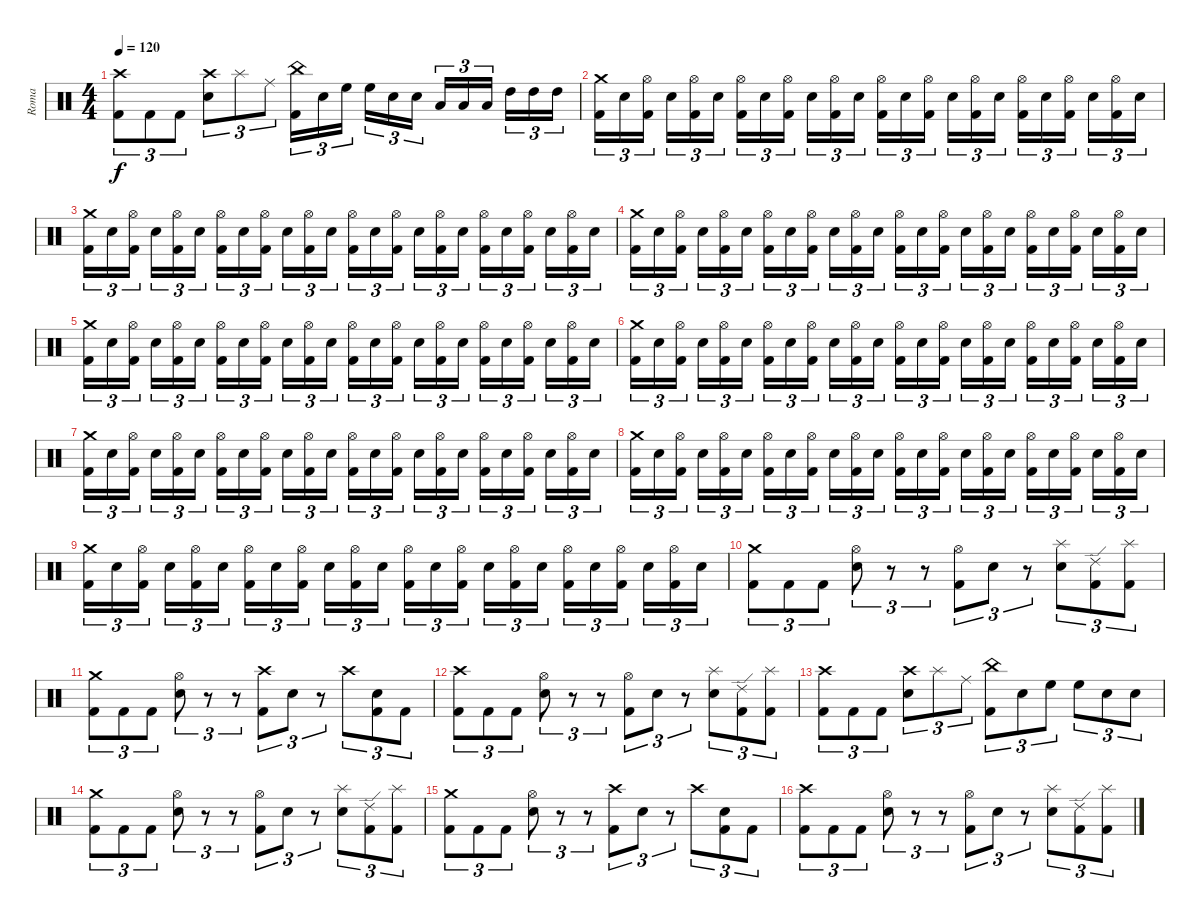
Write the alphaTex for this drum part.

\track ("Roma" "Roma") {instrument percussion}
\staff {score}
\articulation defaults
\ts (4 4)
\tempo 120
\clef neutral
\ks c
("Crash high (hit)" "Kick (hit) 2").8{tu (3 2) dy f} "Kick (hit) 2".8{tu (3 2)} "Kick (hit) 2".8{tu (3 2)} ("Crash high (hit)" "Electric Snare (hit)").8{tu (3 2)} "Splash (hit)".8{tu (3 2)} "Ride (middle)".8{tu (3 2)} ("China (hit)" "Kick (hit) 2").16{tu (3 2)} "Electric Snare (hit)".16{tu (3 2)} "High Floor Tom (hit)".16{tu (3 2) beam splitsecondary} "High Floor Tom (hit)".16{tu (3 2)} "Electric Snare (hit)".16{tu (3 2)} "Electric Snare (hit)".16{tu (3 2)} "Low Tom (hit)".16{tu (3 2)} "Low Tom (hit)".16{tu (3 2)} "Low Tom (hit)".16{tu (3 2) beam splitsecondary} "High Tom (hit)".16{tu (3 2)} "High Tom (hit)".16{tu (3 2)} "High Tom (hit)".16{tu (3 2)} |
("Crash medium (hit)" "Kick (hit) 2").16{tu (3 2)} "Electric Snare (hit)".16{tu (3 2)} ("Hi-Hat (open)" "Kick (hit) 2").16{tu (3 2) beam splitsecondary} "Electric Snare (hit)".16{tu (3 2)} ("Hi-Hat (open)" "Kick (hit) 2").16{tu (3 2)} "Electric Snare (hit)".16{tu (3 2)} ("Hi-Hat (open)" "Kick (hit) 2").16{tu (3 2)} "Electric Snare (hit)".16{tu (3 2)} ("Hi-Hat (open)" "Kick (hit) 2").16{tu (3 2) beam splitsecondary} "Electric Snare (hit)".16{tu (3 2)} ("Hi-Hat (open)" "Kick (hit) 2").16{tu (3 2)} "Electric Snare (hit)".16{tu (3 2)} ("Hi-Hat (open)" "Kick (hit) 2").16{tu (3 2)} "Electric Snare (hit)".16{tu (3 2)} ("Hi-Hat (open)" "Kick (hit) 2").16{tu (3 2) beam splitsecondary} "Electric Snare (hit)".16{tu (3 2)} ("Hi-Hat (open)" "Kick (hit) 2").16{tu (3 2)} "Electric Snare (hit)".16{tu (3 2)} ("Hi-Hat (open)" "Kick (hit) 2").16{tu (3 2)} "Electric Snare (hit)".16{tu (3 2)} ("Hi-Hat (open)" "Kick (hit) 2").16{tu (3 2) beam splitsecondary} "Electric Snare (hit)".16{tu (3 2)} ("Hi-Hat (open)" "Kick (hit) 2").16{tu (3 2)} "Electric Snare (hit)".16{tu (3 2)} |
("Crash medium (hit)" "Kick (hit) 2").16{tu (3 2)} "Electric Snare (hit)".16{tu (3 2)} ("Hi-Hat (open)" "Kick (hit) 2").16{tu (3 2) beam splitsecondary} "Electric Snare (hit)".16{tu (3 2)} ("Hi-Hat (open)" "Kick (hit) 2").16{tu (3 2)} "Electric Snare (hit)".16{tu (3 2)} ("Hi-Hat (open)" "Kick (hit) 2").16{tu (3 2)} "Electric Snare (hit)".16{tu (3 2)} ("Hi-Hat (open)" "Kick (hit) 2").16{tu (3 2) beam splitsecondary} "Electric Snare (hit)".16{tu (3 2)} ("Hi-Hat (open)" "Kick (hit) 2").16{tu (3 2)} "Electric Snare (hit)".16{tu (3 2)} ("Hi-Hat (open)" "Kick (hit) 2").16{tu (3 2)} "Electric Snare (hit)".16{tu (3 2)} ("Hi-Hat (open)" "Kick (hit) 2").16{tu (3 2) beam splitsecondary} "Electric Snare (hit)".16{tu (3 2)} ("Hi-Hat (open)" "Kick (hit) 2").16{tu (3 2)} "Electric Snare (hit)".16{tu (3 2)} ("Hi-Hat (open)" "Kick (hit) 2").16{tu (3 2)} "Electric Snare (hit)".16{tu (3 2)} ("Hi-Hat (open)" "Kick (hit) 2").16{tu (3 2) beam splitsecondary} "Electric Snare (hit)".16{tu (3 2)} ("Hi-Hat (open)" "Kick (hit) 2").16{tu (3 2)} "Electric Snare (hit)".16{tu (3 2)} |
("Crash medium (hit)" "Kick (hit) 2").16{tu (3 2)} "Electric Snare (hit)".16{tu (3 2)} ("Hi-Hat (open)" "Kick (hit) 2").16{tu (3 2) beam splitsecondary} "Electric Snare (hit)".16{tu (3 2)} ("Hi-Hat (open)" "Kick (hit) 2").16{tu (3 2)} "Electric Snare (hit)".16{tu (3 2)} ("Hi-Hat (open)" "Kick (hit) 2").16{tu (3 2)} "Electric Snare (hit)".16{tu (3 2)} ("Hi-Hat (open)" "Kick (hit) 2").16{tu (3 2) beam splitsecondary} "Electric Snare (hit)".16{tu (3 2)} ("Hi-Hat (open)" "Kick (hit) 2").16{tu (3 2)} "Electric Snare (hit)".16{tu (3 2)} ("Hi-Hat (open)" "Kick (hit) 2").16{tu (3 2)} "Electric Snare (hit)".16{tu (3 2)} ("Hi-Hat (open)" "Kick (hit) 2").16{tu (3 2) beam splitsecondary} "Electric Snare (hit)".16{tu (3 2)} ("Hi-Hat (open)" "Kick (hit) 2").16{tu (3 2)} "Electric Snare (hit)".16{tu (3 2)} ("Hi-Hat (open)" "Kick (hit) 2").16{tu (3 2)} "Electric Snare (hit)".16{tu (3 2)} ("Hi-Hat (open)" "Kick (hit) 2").16{tu (3 2) beam splitsecondary} "Electric Snare (hit)".16{tu (3 2)} ("Hi-Hat (open)" "Kick (hit) 2").16{tu (3 2)} "Electric Snare (hit)".16{tu (3 2)} |
("Crash medium (hit)" "Kick (hit) 2").16{tu (3 2)} "Electric Snare (hit)".16{tu (3 2)} ("Hi-Hat (open)" "Kick (hit) 2").16{tu (3 2) beam splitsecondary} "Electric Snare (hit)".16{tu (3 2)} ("Hi-Hat (open)" "Kick (hit) 2").16{tu (3 2)} "Electric Snare (hit)".16{tu (3 2)} ("Hi-Hat (open)" "Kick (hit) 2").16{tu (3 2)} "Electric Snare (hit)".16{tu (3 2)} ("Hi-Hat (open)" "Kick (hit) 2").16{tu (3 2) beam splitsecondary} "Electric Snare (hit)".16{tu (3 2)} ("Hi-Hat (open)" "Kick (hit) 2").16{tu (3 2)} "Electric Snare (hit)".16{tu (3 2)} ("Hi-Hat (open)" "Kick (hit) 2").16{tu (3 2)} "Electric Snare (hit)".16{tu (3 2)} ("Hi-Hat (open)" "Kick (hit) 2").16{tu (3 2) beam splitsecondary} "Electric Snare (hit)".16{tu (3 2)} ("Hi-Hat (open)" "Kick (hit) 2").16{tu (3 2)} "Electric Snare (hit)".16{tu (3 2)} ("Hi-Hat (open)" "Kick (hit) 2").16{tu (3 2)} "Electric Snare (hit)".16{tu (3 2)} ("Hi-Hat (open)" "Kick (hit) 2").16{tu (3 2) beam splitsecondary} "Electric Snare (hit)".16{tu (3 2)} ("Hi-Hat (open)" "Kick (hit) 2").16{tu (3 2)} "Electric Snare (hit)".16{tu (3 2)} |
("Crash medium (hit)" "Kick (hit) 2").16{tu (3 2)} "Electric Snare (hit)".16{tu (3 2)} ("Hi-Hat (open)" "Kick (hit) 2").16{tu (3 2) beam splitsecondary} "Electric Snare (hit)".16{tu (3 2)} ("Hi-Hat (open)" "Kick (hit) 2").16{tu (3 2)} "Electric Snare (hit)".16{tu (3 2)} ("Hi-Hat (open)" "Kick (hit) 2").16{tu (3 2)} "Electric Snare (hit)".16{tu (3 2)} ("Hi-Hat (open)" "Kick (hit) 2").16{tu (3 2) beam splitsecondary} "Electric Snare (hit)".16{tu (3 2)} ("Hi-Hat (open)" "Kick (hit) 2").16{tu (3 2)} "Electric Snare (hit)".16{tu (3 2)} ("Hi-Hat (open)" "Kick (hit) 2").16{tu (3 2)} "Electric Snare (hit)".16{tu (3 2)} ("Hi-Hat (open)" "Kick (hit) 2").16{tu (3 2) beam splitsecondary} "Electric Snare (hit)".16{tu (3 2)} ("Hi-Hat (open)" "Kick (hit) 2").16{tu (3 2)} "Electric Snare (hit)".16{tu (3 2)} ("Hi-Hat (open)" "Kick (hit) 2").16{tu (3 2)} "Electric Snare (hit)".16{tu (3 2)} ("Hi-Hat (open)" "Kick (hit) 2").16{tu (3 2) beam splitsecondary} "Electric Snare (hit)".16{tu (3 2)} ("Hi-Hat (open)" "Kick (hit) 2").16{tu (3 2)} "Electric Snare (hit)".16{tu (3 2)} |
("Crash medium (hit)" "Kick (hit) 2").16{tu (3 2)} "Electric Snare (hit)".16{tu (3 2)} ("Hi-Hat (open)" "Kick (hit) 2").16{tu (3 2) beam splitsecondary} "Electric Snare (hit)".16{tu (3 2)} ("Hi-Hat (open)" "Kick (hit) 2").16{tu (3 2)} "Electric Snare (hit)".16{tu (3 2)} ("Hi-Hat (open)" "Kick (hit) 2").16{tu (3 2)} "Electric Snare (hit)".16{tu (3 2)} ("Hi-Hat (open)" "Kick (hit) 2").16{tu (3 2) beam splitsecondary} "Electric Snare (hit)".16{tu (3 2)} ("Hi-Hat (open)" "Kick (hit) 2").16{tu (3 2)} "Electric Snare (hit)".16{tu (3 2)} ("Hi-Hat (open)" "Kick (hit) 2").16{tu (3 2)} "Electric Snare (hit)".16{tu (3 2)} ("Hi-Hat (open)" "Kick (hit) 2").16{tu (3 2) beam splitsecondary} "Electric Snare (hit)".16{tu (3 2)} ("Hi-Hat (open)" "Kick (hit) 2").16{tu (3 2)} "Electric Snare (hit)".16{tu (3 2)} ("Hi-Hat (open)" "Kick (hit) 2").16{tu (3 2)} "Electric Snare (hit)".16{tu (3 2)} ("Hi-Hat (open)" "Kick (hit) 2").16{tu (3 2) beam splitsecondary} "Electric Snare (hit)".16{tu (3 2)} ("Hi-Hat (open)" "Kick (hit) 2").16{tu (3 2)} "Electric Snare (hit)".16{tu (3 2)} |
("Crash medium (hit)" "Kick (hit) 2").16{tu (3 2)} "Electric Snare (hit)".16{tu (3 2)} ("Hi-Hat (open)" "Kick (hit) 2").16{tu (3 2) beam splitsecondary} "Electric Snare (hit)".16{tu (3 2)} ("Hi-Hat (open)" "Kick (hit) 2").16{tu (3 2)} "Electric Snare (hit)".16{tu (3 2)} ("Hi-Hat (open)" "Kick (hit) 2").16{tu (3 2)} "Electric Snare (hit)".16{tu (3 2)} ("Hi-Hat (open)" "Kick (hit) 2").16{tu (3 2) beam splitsecondary} "Electric Snare (hit)".16{tu (3 2)} ("Hi-Hat (open)" "Kick (hit) 2").16{tu (3 2)} "Electric Snare (hit)".16{tu (3 2)} ("Hi-Hat (open)" "Kick (hit) 2").16{tu (3 2)} "Electric Snare (hit)".16{tu (3 2)} ("Hi-Hat (open)" "Kick (hit) 2").16{tu (3 2) beam splitsecondary} "Electric Snare (hit)".16{tu (3 2)} ("Hi-Hat (open)" "Kick (hit) 2").16{tu (3 2)} "Electric Snare (hit)".16{tu (3 2)} ("Hi-Hat (open)" "Kick (hit) 2").16{tu (3 2)} "Electric Snare (hit)".16{tu (3 2)} ("Hi-Hat (open)" "Kick (hit) 2").16{tu (3 2) beam splitsecondary} "Electric Snare (hit)".16{tu (3 2)} ("Hi-Hat (open)" "Kick (hit) 2").16{tu (3 2)} "Electric Snare (hit)".16{tu (3 2)} |
("Crash medium (hit)" "Kick (hit) 2").16{tu (3 2)} "Electric Snare (hit)".16{tu (3 2)} ("Hi-Hat (open)" "Kick (hit) 2").16{tu (3 2) beam splitsecondary} "Electric Snare (hit)".16{tu (3 2)} ("Hi-Hat (open)" "Kick (hit) 2").16{tu (3 2)} "Electric Snare (hit)".16{tu (3 2)} ("Hi-Hat (open)" "Kick (hit) 2").16{tu (3 2)} "Electric Snare (hit)".16{tu (3 2)} ("Hi-Hat (open)" "Kick (hit) 2").16{tu (3 2) beam splitsecondary} "Electric Snare (hit)".16{tu (3 2)} ("Hi-Hat (open)" "Kick (hit) 2").16{tu (3 2)} "Electric Snare (hit)".16{tu (3 2)} ("Hi-Hat (open)" "Kick (hit) 2").16{tu (3 2)} "Electric Snare (hit)".16{tu (3 2)} ("Hi-Hat (open)" "Kick (hit) 2").16{tu (3 2) beam splitsecondary} "Electric Snare (hit)".16{tu (3 2)} ("Hi-Hat (open)" "Kick (hit) 2").16{tu (3 2)} "Electric Snare (hit)".16{tu (3 2)} ("Hi-Hat (open)" "Kick (hit) 2").16{tu (3 2)} "Electric Snare (hit)".16{tu (3 2)} ("Hi-Hat (open)" "Kick (hit) 2").16{tu (3 2) beam splitsecondary} "Electric Snare (hit)".16{tu (3 2)} ("Hi-Hat (open)" "Kick (hit) 2").16{tu (3 2)} "Electric Snare (hit)".16{tu (3 2)} |
("Crash medium (hit)" "Kick (hit) 2").8{tu (3 2)} "Kick (hit) 2".8{tu (3 2)} "Kick (hit) 2".8{tu (3 2)} ("Hi-Hat (open)" "Electric Snare (hit)").8{tu (3 2)} r.8{tu (3 2)} r.8{tu (3 2)} ("Hi-Hat (open)" "Kick (hit) 2").8{tu (3 2)} "Electric Snare (hit)".8{tu (3 2)} r.8{tu (3 2)} ("Splash (hit)" "Electric Snare (hit)").8{tu (3 2)} ("Ride (edge) 2" "Kick (hit) 2").8{tu (3 2)} ("Splash (hit)" "Kick (hit) 2").8{tu (3 2)} |
("Crash medium (hit)" "Kick (hit) 2").8{tu (3 2)} "Kick (hit) 2".8{tu (3 2)} "Kick (hit) 2".8{tu (3 2)} ("Hi-Hat (open)" "Electric Snare (hit)").8{tu (3 2)} r.8{tu (3 2)} r.8{tu (3 2)} ("Crash high (hit)" "Kick (hit) 2").8{tu (3 2)} "Electric Snare (hit)".8{tu (3 2)} r.8{tu (3 2)} "Crash high (hit)".8{tu (3 2)} ("Electric Snare (hit)" "Kick (hit) 2").8{tu (3 2)} "Kick (hit) 2".8{tu (3 2)} |
("Crash high (hit)" "Kick (hit) 2").8{tu (3 2)} "Kick (hit) 2".8{tu (3 2)} "Kick (hit) 2".8{tu (3 2)} ("Hi-Hat (open)" "Electric Snare (hit)").8{tu (3 2)} r.8{tu (3 2)} r.8{tu (3 2)} ("Hi-Hat (open)" "Kick (hit) 2").8{tu (3 2)} "Electric Snare (hit)".8{tu (3 2)} r.8{tu (3 2)} ("Splash (hit)" "Electric Snare (hit)").8{tu (3 2)} ("Ride (edge) 2" "Kick (hit) 2").8{tu (3 2)} ("Splash (hit)" "Kick (hit) 2").8{tu (3 2)} |
("Crash high (hit)" "Kick (hit) 2").8{tu (3 2)} "Kick (hit) 2".8{tu (3 2)} "Kick (hit) 2".8{tu (3 2)} ("Crash high (hit)" "Electric Snare (hit)").8{tu (3 2)} "Splash (hit)".8{tu (3 2)} "Ride (middle)".8{tu (3 2)} ("China (hit)" "Kick (hit) 2").8{tu (3 2)} "Electric Snare (hit)".8{tu (3 2)} "High Floor Tom (hit)".8{tu (3 2)} "High Floor Tom (hit)".8{tu (3 2)} "Electric Snare (hit)".8{tu (3 2)} "Electric Snare (hit)".8{tu (3 2)} |
("Crash medium (hit)" "Kick (hit) 2").8{tu (3 2)} "Kick (hit) 2".8{tu (3 2)} "Kick (hit) 2".8{tu (3 2)} ("Hi-Hat (open)" "Electric Snare (hit)").8{tu (3 2)} r.8{tu (3 2)} r.8{tu (3 2)} ("Hi-Hat (open)" "Kick (hit) 2").8{tu (3 2)} "Electric Snare (hit)".8{tu (3 2)} r.8{tu (3 2)} ("Splash (hit)" "Electric Snare (hit)").8{tu (3 2)} ("Ride (edge) 2" "Kick (hit) 2").8{tu (3 2)} ("Splash (hit)" "Kick (hit) 2").8{tu (3 2)} |
("Crash medium (hit)" "Kick (hit) 2").8{tu (3 2)} "Kick (hit) 2".8{tu (3 2)} "Kick (hit) 2".8{tu (3 2)} ("Hi-Hat (open)" "Electric Snare (hit)").8{tu (3 2)} r.8{tu (3 2)} r.8{tu (3 2)} ("Crash high (hit)" "Kick (hit) 2").8{tu (3 2)} "Electric Snare (hit)".8{tu (3 2)} r.8{tu (3 2)} "Crash high (hit)".8{tu (3 2)} ("Electric Snare (hit)" "Kick (hit) 2").8{tu (3 2)} "Kick (hit) 2".8{tu (3 2)} |
("Crash high (hit)" "Kick (hit) 2").8{tu (3 2)} "Kick (hit) 2".8{tu (3 2)} "Kick (hit) 2".8{tu (3 2)} ("Hi-Hat (open)" "Electric Snare (hit)").8{tu (3 2)} r.8{tu (3 2)} r.8{tu (3 2)} ("Hi-Hat (open)" "Kick (hit) 2").8{tu (3 2)} "Electric Snare (hit)".8{tu (3 2)} r.8{tu (3 2)} ("Splash (hit)" "Electric Snare (hit)").8{tu (3 2)} ("Ride (edge) 2" "Kick (hit) 2").8{tu (3 2)} ("Splash (hit)" "Kick (hit) 2").8{tu (3 2)}
